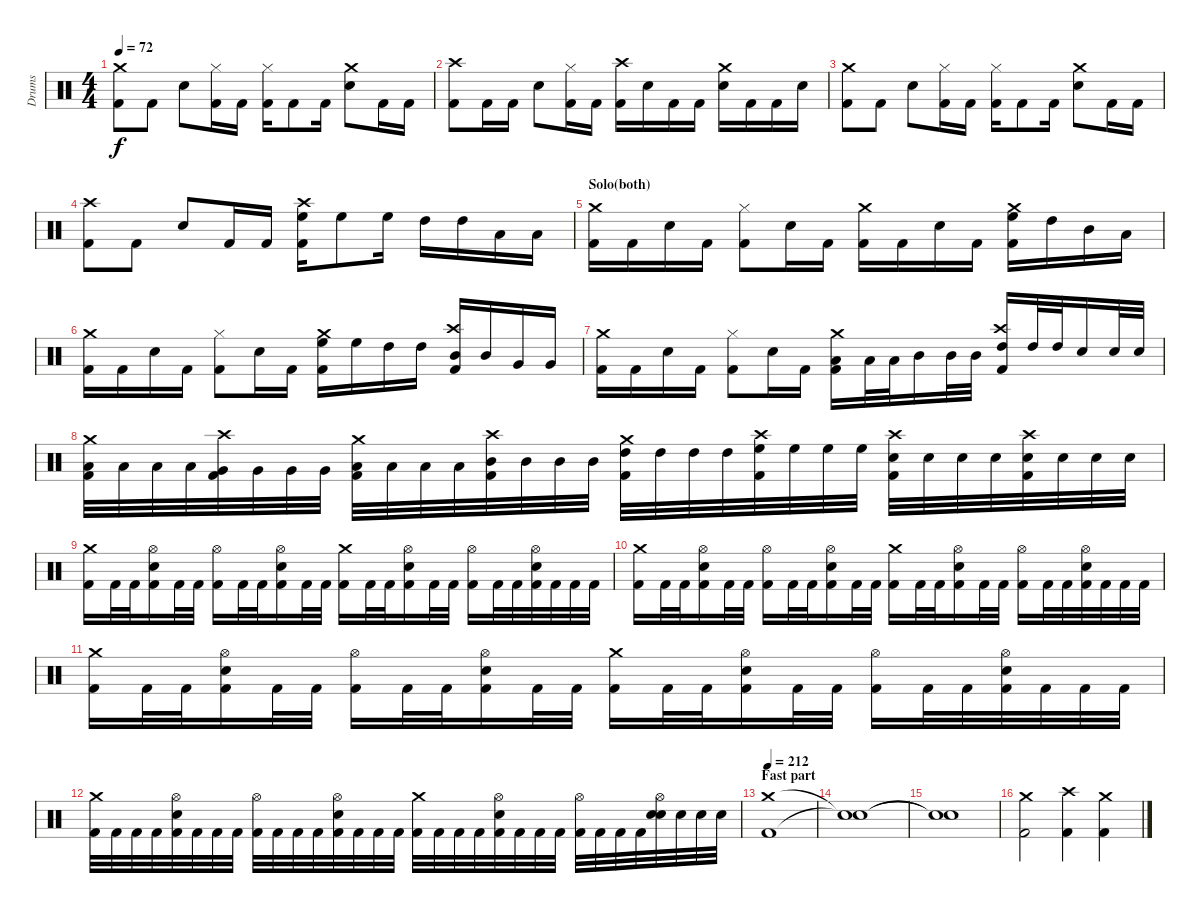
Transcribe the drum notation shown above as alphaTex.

\track ("Drums" "Drums") {instrument percussion}
\staff {score}
\articulation defaults
\ts (4 4)
\tempo 72
\clef neutral
\ks c
("Crash medium (hit)" "Kick (hit) 2").8{dy f} "Kick (hit) 2".8 "Electric Snare (hit)".8 ("Hi-Hat (closed)" "Kick (hit) 2").16 "Kick (hit) 2".16 ("Hi-Hat (closed)" "Kick (hit) 2").16 "Kick (hit) 2".8 "Kick (hit) 2".16 ("Crash medium (hit)" "Electric Snare (hit)").8 "Kick (hit) 2".16 "Kick (hit) 2".16 |
("Crash high (hit)" "Kick (hit) 2").8 "Kick (hit) 2".16 "Kick (hit) 2".16 "Electric Snare (hit)".8 ("Hi-Hat (closed)" "Kick (hit) 2").16 "Kick (hit) 2".16 ("Crash high (hit)" "Kick (hit) 2").16 "Electric Snare (hit)".16 "Kick (hit) 2".16 "Kick (hit) 2".16 ("Crash medium (hit)" "Electric Snare (hit)").16 "Kick (hit) 2".16 "Kick (hit) 2".16 "Electric Snare (hit)".16 |
("Crash medium (hit)" "Kick (hit) 2").8 "Kick (hit) 2".8 "Electric Snare (hit)".8 ("Hi-Hat (closed)" "Kick (hit) 2").16 "Kick (hit) 2".16 ("Hi-Hat (closed)" "Kick (hit) 2").16 "Kick (hit) 2".8 "Kick (hit) 2".16 ("Crash medium (hit)" "Electric Snare (hit)").8 "Kick (hit) 2".16 "Kick (hit) 2".16 |
("Crash high (hit)" "Kick (hit) 2").8 "Kick (hit) 2".8 "Electric Snare (hit)".8 "Kick (hit) 2".16 "Kick (hit) 2".16 ("Crash high (hit)" "High Floor Tom (hit)" "Kick (hit) 2").16 "High Floor Tom (hit)".8 "High Floor Tom (hit)".16 "High Tom (hit)".16 "High Tom (hit)".16 "Low Tom (hit)".16 "Low Tom (hit)".16 |
\section ("" "Solo(both)")
("Crash medium (hit)" "Kick (hit) 2").16 "Kick (hit) 2".16 "Electric Snare (hit)".16 "Kick (hit) 2".16 ("Hi-Hat (closed)" "Kick (hit) 2").8 "Electric Snare (hit)".16 "Kick (hit) 2".16 ("Crash medium (hit)" "Kick (hit) 2").16 "Kick (hit) 2".16 "Electric Snare (hit)".16 "Kick (hit) 2".16 ("Crash medium (hit)" "High Floor Tom (hit)" "Kick (hit) 2").16 "High Tom (hit)".16 "Mid Tom (hit)".16 "Low Tom (hit)".16 |
("Crash medium (hit)" "Kick (hit) 2").16 "Kick (hit) 2".16 "Electric Snare (hit)".16 "Kick (hit) 2".16 ("Hi-Hat (closed)" "Kick (hit) 2").8 "Electric Snare (hit)".16 "Kick (hit) 2".16 ("High Floor Tom (hit)" "Crash medium (hit)" "Kick (hit) 2").16 "High Floor Tom (hit)".16 "High Tom (hit)".16 "High Tom (hit)".16 ("Mid Tom (hit)" "Crash high (hit)" "Kick (hit) 2").16 "Mid Tom (hit)".16 "Very Low Tom (hit)".16 "Very Low Tom (hit)".16 |
("Crash medium (hit)" "Kick (hit) 2").16 "Kick (hit) 2".16 "Electric Snare (hit)".16 "Kick (hit) 2".16 ("Hi-Hat (closed)" "Kick (hit) 2").8 "Electric Snare (hit)".16 "Kick (hit) 2".16 ("Crash medium (hit)" "Low Tom (hit)" "Kick (hit) 2").16 "Low Tom (hit)".32 "Low Tom (hit)".32 "Mid Tom (hit)".16 "Mid Tom (hit)".32 "Mid Tom (hit)".32 ("Crash high (hit)" "High Tom (hit)" "Kick (hit) 2").16 "High Tom (hit)".32 "High Tom (hit)".32 "Electric Snare (hit)".16 "Electric Snare (hit)".32 "Electric Snare (hit)".32 |
("Crash medium (hit)" "Low Floor Tom (hit)" "Kick (hit) 2").32 "Low Floor Tom (hit)".32 "Low Floor Tom (hit)".32 "Low Floor Tom (hit)".32 ("Crash high (hit)" "Very Low Tom (hit)" "Kick (hit) 2").32 "Very Low Tom (hit)".32 "Very Low Tom (hit)".32 "Very Low Tom (hit)".32 ("Crash medium (hit)" "Low Tom (hit)" "Kick (hit) 2").32 "Low Tom (hit)".32 "Low Tom (hit)".32 "Low Tom (hit)".32 ("Crash high (hit)" "Mid Tom (hit)" "Kick (hit) 2").32 "Mid Tom (hit)".32 "Mid Tom (hit)".32 "Mid Tom (hit)".32 ("Crash medium (hit)" "High Tom (hit)" "Kick (hit) 2").32 "High Tom (hit)".32 "High Tom (hit)".32 "High Tom (hit)".32 ("Crash high (hit)" "High Floor Tom (hit)" "Kick (hit) 2").32 "High Floor Tom (hit)".32 "High Floor Tom (hit)".32 "High Floor Tom (hit)".32 ("Crash high (hit)" "Electric Snare (hit)" "Kick (hit) 2").32 "Electric Snare (hit)".32 "Electric Snare (hit)".32 "Electric Snare (hit)".32 ("Crash high (hit)" "Electric Snare (hit)" "Kick (hit) 2").32 "Electric Snare (hit)".32 "Electric Snare (hit)".32 "Electric Snare (hit)".32 |
("Crash medium (hit)" "Kick (hit) 2").16 "Kick (hit) 2".32 "Kick (hit) 2".32 ("Electric Snare (hit)" "Hi-Hat (open)" "Kick (hit) 2").16 "Kick (hit) 2".32 "Kick (hit) 2".32 ("Hi-Hat (open)" "Kick (hit) 2").16 "Kick (hit) 2".32 "Kick (hit) 2".32 ("Electric Snare (hit)" "Hi-Hat (open)" "Kick (hit) 2").16 "Kick (hit) 2".32 "Kick (hit) 2".32 ("Crash medium (hit)" "Kick (hit) 2").16 "Kick (hit) 2".32 "Kick (hit) 2".32 ("Electric Snare (hit)" "Hi-Hat (open)" "Kick (hit) 2").16 "Kick (hit) 2".32 "Kick (hit) 2".32 ("Hi-Hat (open)" "Kick (hit) 2").16 "Kick (hit) 2".32 "Kick (hit) 2".32 ("Electric Snare (hit)" "Hi-Hat (open)" "Kick (hit) 2").32 "Kick (hit) 2".32 "Kick (hit) 2".32 "Kick (hit) 2".32 |
("Crash medium (hit)" "Kick (hit) 2").16 "Kick (hit) 2".32 "Kick (hit) 2".32 ("Electric Snare (hit)" "Hi-Hat (open)" "Kick (hit) 2").16 "Kick (hit) 2".32 "Kick (hit) 2".32 ("Hi-Hat (open)" "Kick (hit) 2").16 "Kick (hit) 2".32 "Kick (hit) 2".32 ("Electric Snare (hit)" "Hi-Hat (open)" "Kick (hit) 2").16 "Kick (hit) 2".32 "Kick (hit) 2".32 ("Crash medium (hit)" "Kick (hit) 2").16 "Kick (hit) 2".32 "Kick (hit) 2".32 ("Electric Snare (hit)" "Hi-Hat (open)" "Kick (hit) 2").16 "Kick (hit) 2".32 "Kick (hit) 2".32 ("Hi-Hat (open)" "Kick (hit) 2").16 "Kick (hit) 2".32 "Kick (hit) 2".32 ("Electric Snare (hit)" "Hi-Hat (open)" "Kick (hit) 2").32 "Kick (hit) 2".32 "Kick (hit) 2".32 "Kick (hit) 2".32 |
("Crash medium (hit)" "Kick (hit) 2").16 "Kick (hit) 2".32 "Kick (hit) 2".32 ("Electric Snare (hit)" "Hi-Hat (open)" "Kick (hit) 2").16 "Kick (hit) 2".32 "Kick (hit) 2".32 ("Hi-Hat (open)" "Kick (hit) 2").16 "Kick (hit) 2".32 "Kick (hit) 2".32 ("Electric Snare (hit)" "Hi-Hat (open)" "Kick (hit) 2").16 "Kick (hit) 2".32 "Kick (hit) 2".32 ("Crash medium (hit)" "Kick (hit) 2").16 "Kick (hit) 2".32 "Kick (hit) 2".32 ("Electric Snare (hit)" "Hi-Hat (open)" "Kick (hit) 2").16 "Kick (hit) 2".32 "Kick (hit) 2".32 ("Hi-Hat (open)" "Kick (hit) 2").16 "Kick (hit) 2".32 "Kick (hit) 2".32 ("Electric Snare (hit)" "Hi-Hat (open)" "Kick (hit) 2").32 "Kick (hit) 2".32 "Kick (hit) 2".32 "Kick (hit) 2".32 |
("Crash medium (hit)" "Kick (hit) 2").32 "Kick (hit) 2".32 "Kick (hit) 2".32 "Kick (hit) 2".32 ("Hi-Hat (open)" "Electric Snare (hit)" "Kick (hit) 2").32 "Kick (hit) 2".32 "Kick (hit) 2".32 "Kick (hit) 2".32 ("Hi-Hat (open)" "Kick (hit) 2").32 "Kick (hit) 2".32 "Kick (hit) 2".32 "Kick (hit) 2".32 ("Hi-Hat (open)" "Electric Snare (hit)" "Kick (hit) 2").32 "Kick (hit) 2".32 "Kick (hit) 2".32 "Kick (hit) 2".32 ("Crash medium (hit)" "Kick (hit) 2").32 "Kick (hit) 2".32 "Kick (hit) 2".32 "Kick (hit) 2".32 ("Hi-Hat (open)" "Electric Snare (hit)" "Kick (hit) 2").32 "Kick (hit) 2".32 "Kick (hit) 2".32 "Kick (hit) 2".32 ("Hi-Hat (open)" "Kick (hit) 2").32 "Kick (hit) 2".32 "Kick (hit) 2".32 "Kick (hit) 2".32 ("Hi-Hat (open)" "Electric Snare (hit)" "Electric Snare (hit)").32 "Electric Snare (hit)".32 "Electric Snare (hit)".32 "Electric Snare (hit)".32 |
\section ("" "Fast part")
\tempo 212
("Crash medium (hit)" "Kick (hit) 2").1 |
("Snare (hit)"{t} "Snare (hit)"{t}).1 |
("Snare (hit)"{t} "Snare (hit)"{t}).1 |
("Crash medium (hit)" "Kick (hit) 2").2 ("Crash high (hit)" "Kick (hit) 2").4 ("Crash medium (hit)" "Kick (hit) 2").4
